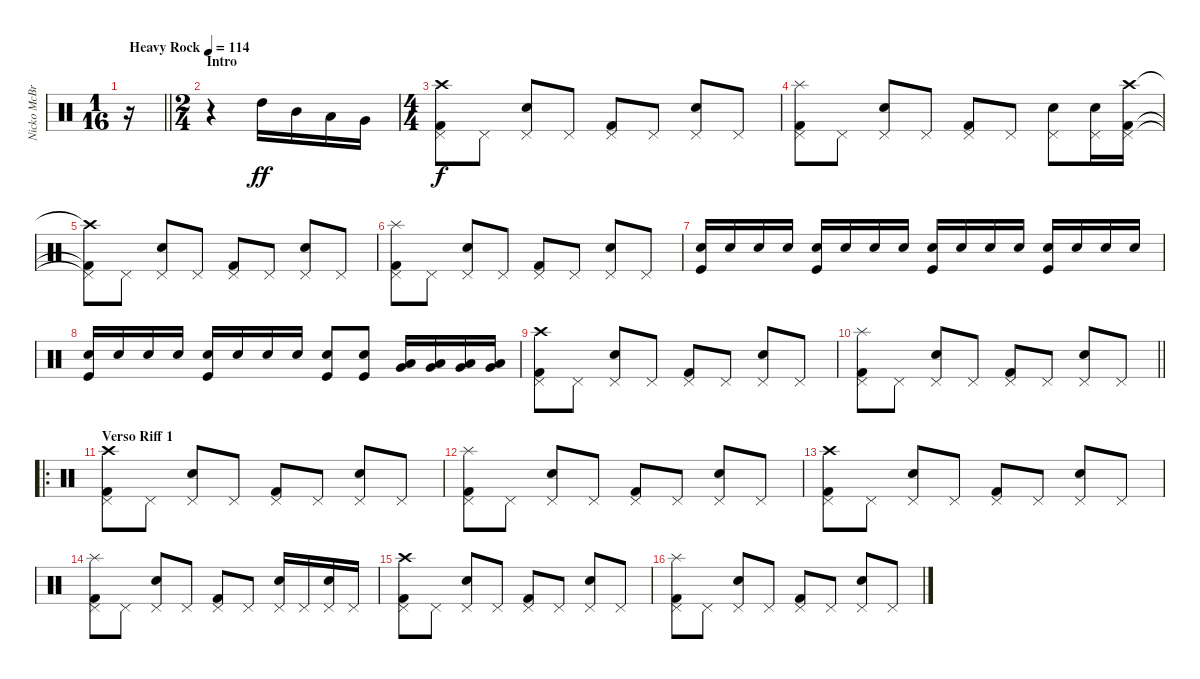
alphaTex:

\track ("Nicko McBrain" "Nicko McBr") {instrument percussion}
\staff {score}
\articulation defaults
\ts (1 16)
\tempo (114 "Heavy Rock")
\clef neutral
\barLineRight lightlight
\ks c
r.16{dy ff} |
\ts (2 4)
\section ("" "Intro")
r.4 "High Tom (hit)".16 "Mid Tom (hit)".16 "Low Tom (hit)".16 "Very Low Tom (hit)".16 |
\ts (4 4)
("Kick (hit) 2" "Pedal Hi-Hat (hit)" "Crash high (hit)").8{dy f} "Pedal Hi-Hat (hit)".8 ("Snare (hit) 2" "Pedal Hi-Hat (hit)").8 "Pedal Hi-Hat (hit)".8 ("Kick (hit) 2" "Pedal Hi-Hat (hit)").8 "Pedal Hi-Hat (hit)".8 ("Snare (hit) 2" "Pedal Hi-Hat (hit)").8 "Pedal Hi-Hat (hit)".8 |
("Kick (hit) 2" "Pedal Hi-Hat (hit)" "Splash (hit)").8 "Pedal Hi-Hat (hit)".8 ("Snare (hit) 2" "Pedal Hi-Hat (hit)").8 "Pedal Hi-Hat (hit)".8 ("Kick (hit) 2" "Pedal Hi-Hat (hit)").8 "Pedal Hi-Hat (hit)".8 ("Snare (hit) 2" "Pedal Hi-Hat (hit)").8 ("Snare (hit) 2" "Pedal Hi-Hat (hit)").16 ("Kick (hit) 2" "Pedal Hi-Hat (hit)" "Crash high (hit)").16 |
("Kick (hit) 2"{t} "Pedal Hi-Hat (hit)"{t} "Crash high (hit)"{t}).8 "Pedal Hi-Hat (hit)".8 ("Snare (hit) 2" "Pedal Hi-Hat (hit)").8 "Pedal Hi-Hat (hit)".8 ("Kick (hit) 2" "Pedal Hi-Hat (hit)").8 "Pedal Hi-Hat (hit)".8 ("Snare (hit) 2" "Pedal Hi-Hat (hit)").8 "Pedal Hi-Hat (hit)".8 |
("Kick (hit) 2" "Pedal Hi-Hat (hit)" "Splash (hit)").8 "Pedal Hi-Hat (hit)".8 ("Snare (hit) 2" "Pedal Hi-Hat (hit)").8 "Pedal Hi-Hat (hit)".8 ("Kick (hit) 2" "Pedal Hi-Hat (hit)").8 "Pedal Hi-Hat (hit)".8 ("Snare (hit) 2" "Pedal Hi-Hat (hit)").8 "Pedal Hi-Hat (hit)".8 |
("Snare (hit) 2" "Kick (hit)").16 "Snare (hit) 2".16 "Snare (hit) 2".16 "Snare (hit) 2".16 ("Snare (hit) 2" "Kick (hit)").16 "Snare (hit) 2".16 "Snare (hit) 2".16 "Snare (hit) 2".16 ("Snare (hit) 2" "Kick (hit)").16 "Snare (hit) 2".16 "Snare (hit) 2".16 "Snare (hit) 2".16 ("Snare (hit) 2" "Kick (hit)").16 "Snare (hit) 2".16 "Snare (hit) 2".16 "Snare (hit) 2".16 |
("Snare (hit) 2" "Kick (hit)").16 "Snare (hit) 2".16 "Snare (hit) 2".16 "Snare (hit) 2".16 ("Snare (hit) 2" "Kick (hit)").16 "Snare (hit) 2".16 "Snare (hit) 2".16 "Snare (hit) 2".16 ("Snare (hit) 2" "Kick (hit)").8 ("Snare (hit) 2" "Kick (hit)").8 ("Low Floor Tom (hit)" "Very Low Tom (hit)").16 ("Low Floor Tom (hit)" "Very Low Tom (hit)").16 ("Very Low Tom (hit)" "Low Tom (hit)").16 ("Very Low Tom (hit)" "Low Tom (hit)").16 |
("Kick (hit) 2" "Pedal Hi-Hat (hit)" "Crash high (hit)").8 "Pedal Hi-Hat (hit)".8 ("Snare (hit) 2" "Pedal Hi-Hat (hit)").8 "Pedal Hi-Hat (hit)".8 ("Kick (hit) 2" "Pedal Hi-Hat (hit)").8 "Pedal Hi-Hat (hit)".8 ("Snare (hit) 2" "Pedal Hi-Hat (hit)").8 "Pedal Hi-Hat (hit)".8 |
\barLineRight lightlight
("Kick (hit) 2" "Pedal Hi-Hat (hit)" "Splash (hit)").8 "Pedal Hi-Hat (hit)".8 ("Snare (hit) 2" "Pedal Hi-Hat (hit)").8 "Pedal Hi-Hat (hit)".8 ("Kick (hit) 2" "Pedal Hi-Hat (hit)").8 "Pedal Hi-Hat (hit)".8 ("Snare (hit) 2" "Pedal Hi-Hat (hit)").8 "Pedal Hi-Hat (hit)".8 |
\ro
\section ("" "Verso Riff 1")
("Kick (hit) 2" "Pedal Hi-Hat (hit)" "Crash high (hit)").8 "Pedal Hi-Hat (hit)".8 ("Snare (hit) 2" "Pedal Hi-Hat (hit)").8 "Pedal Hi-Hat (hit)".8 ("Kick (hit) 2" "Pedal Hi-Hat (hit)").8 "Pedal Hi-Hat (hit)".8 ("Snare (hit) 2" "Pedal Hi-Hat (hit)").8 "Pedal Hi-Hat (hit)".8 |
("Kick (hit) 2" "Pedal Hi-Hat (hit)" "Splash (hit)").8 "Pedal Hi-Hat (hit)".8 ("Snare (hit) 2" "Pedal Hi-Hat (hit)").8 "Pedal Hi-Hat (hit)".8 ("Kick (hit) 2" "Pedal Hi-Hat (hit)").8 "Pedal Hi-Hat (hit)".8 ("Snare (hit) 2" "Pedal Hi-Hat (hit)").8 "Pedal Hi-Hat (hit)".8 |
("Kick (hit) 2" "Pedal Hi-Hat (hit)" "Crash high (hit)").8 "Pedal Hi-Hat (hit)".8 ("Snare (hit) 2" "Pedal Hi-Hat (hit)").8 "Pedal Hi-Hat (hit)".8 ("Kick (hit) 2" "Pedal Hi-Hat (hit)").8 "Pedal Hi-Hat (hit)".8 ("Snare (hit) 2" "Pedal Hi-Hat (hit)").8 "Pedal Hi-Hat (hit)".8 |
("Kick (hit) 2" "Pedal Hi-Hat (hit)" "Splash (hit)").8 "Pedal Hi-Hat (hit)".8 ("Snare (hit) 2" "Pedal Hi-Hat (hit)").8 "Pedal Hi-Hat (hit)".8 ("Kick (hit) 2" "Pedal Hi-Hat (hit)").8 "Pedal Hi-Hat (hit)".8 ("Snare (hit) 2" "Pedal Hi-Hat (hit)").16 "Pedal Hi-Hat (hit)".16 ("Snare (hit) 2" "Pedal Hi-Hat (hit)").16 "Pedal Hi-Hat (hit)".16 |
("Kick (hit) 2" "Pedal Hi-Hat (hit)" "Crash high (hit)").8 "Pedal Hi-Hat (hit)".8 ("Snare (hit) 2" "Pedal Hi-Hat (hit)").8 "Pedal Hi-Hat (hit)".8 ("Kick (hit) 2" "Pedal Hi-Hat (hit)").8 "Pedal Hi-Hat (hit)".8 ("Snare (hit) 2" "Pedal Hi-Hat (hit)").8 "Pedal Hi-Hat (hit)".8 |
("Kick (hit) 2" "Pedal Hi-Hat (hit)" "Splash (hit)").8 "Pedal Hi-Hat (hit)".8 ("Snare (hit) 2" "Pedal Hi-Hat (hit)").8 "Pedal Hi-Hat (hit)".8 ("Kick (hit) 2" "Pedal Hi-Hat (hit)").8 "Pedal Hi-Hat (hit)".8 ("Snare (hit) 2" "Pedal Hi-Hat (hit)").8 "Pedal Hi-Hat (hit)".8
